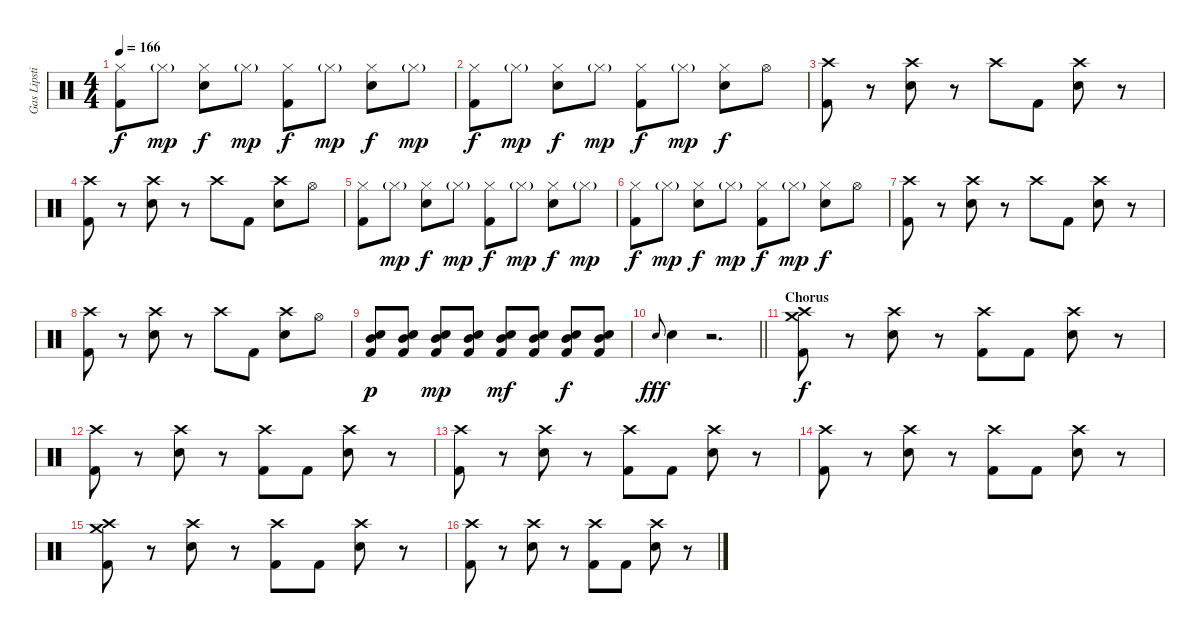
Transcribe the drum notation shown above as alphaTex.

\track ("Gas Lipstick (Drums)" "Gas Lipsti") {instrument percussion}
\staff {score}
\articulation defaults
\ts (4 4)
\tempo 166
\clef neutral
\ks c
("Hi-Hat (closed)" "Kick (hit) 2").8{dy f} "Hi-Hat (closed)"{g}.8{dy mp} ("Hi-Hat (closed)" "Snare (hit) 2").8{dy f} "Hi-Hat (closed)"{g}.8{dy mp} ("Hi-Hat (closed)" "Kick (hit) 2").8{dy f} "Hi-Hat (closed)"{g}.8{dy mp} ("Hi-Hat (closed)" "Snare (hit) 2").8{dy f} "Hi-Hat (closed)"{g}.8{dy mp} |
("Hi-Hat (closed)" "Kick (hit) 2").8{dy f} "Hi-Hat (closed)"{g}.8{dy mp} ("Hi-Hat (closed)" "Snare (hit) 2").8{dy f} "Hi-Hat (closed)"{g}.8{dy mp} ("Hi-Hat (closed)" "Kick (hit) 2").8{dy f} "Hi-Hat (closed)"{g}.8{dy mp} ("Hi-Hat (closed)" "Snare (hit) 2").8{dy f} "Hi-Hat (open)".8 |
("Crash high (hit)" "Kick (hit) 2").8 r.8 ("Crash high (hit)" "Snare (hit) 2").8 r.8 "Crash high (hit)".8 "Kick (hit) 2".8 ("Crash high (hit)" "Snare (hit) 2").8 r.8 |
("Crash high (hit)" "Kick (hit) 2").8 r.8 ("Crash high (hit)" "Snare (hit) 2").8 r.8 "Crash high (hit)".8 "Kick (hit) 2".8 ("Crash high (hit)" "Snare (hit) 2").8 "Hi-Hat (open)".8 |
("Hi-Hat (closed)" "Kick (hit) 2").8 "Hi-Hat (closed)"{g}.8{dy mp} ("Hi-Hat (closed)" "Snare (hit) 2").8{dy f} "Hi-Hat (closed)"{g}.8{dy mp} ("Hi-Hat (closed)" "Kick (hit) 2").8{dy f} "Hi-Hat (closed)"{g}.8{dy mp} ("Hi-Hat (closed)" "Snare (hit) 2").8{dy f} "Hi-Hat (closed)"{g}.8{dy mp} |
("Hi-Hat (closed)" "Kick (hit) 2").8{dy f} "Hi-Hat (closed)"{g}.8{dy mp} ("Hi-Hat (closed)" "Snare (hit) 2").8{dy f} "Hi-Hat (closed)"{g}.8{dy mp} ("Hi-Hat (closed)" "Kick (hit) 2").8{dy f} "Hi-Hat (closed)"{g}.8{dy mp} ("Hi-Hat (closed)" "Snare (hit) 2").8{dy f} "Hi-Hat (open)".8 |
("Crash high (hit)" "Kick (hit) 2").8 r.8 ("Crash high (hit)" "Snare (hit) 2").8 r.8 "Crash high (hit)".8 "Kick (hit) 2".8 ("Crash high (hit)" "Snare (hit) 2").8 r.8 |
("Crash high (hit)" "Kick (hit) 2").8 r.8 ("Crash high (hit)" "Snare (hit) 2").8 r.8 "Crash high (hit)".8 "Kick (hit) 2".8 ("Crash high (hit)" "Snare (hit) 2").8 "Hi-Hat (open)".8 |
("Mid Tom (hit)" "Snare (hit) 2" "Kick (hit) 2").8{dy p} ("Mid Tom (hit)" "Snare (hit) 2" "Kick (hit) 2").8 ("Mid Tom (hit)" "Snare (hit) 2" "Kick (hit) 2").8{dy mp} ("Mid Tom (hit)" "Snare (hit) 2" "Kick (hit) 2").8 ("Mid Tom (hit)" "Snare (hit) 2" "Kick (hit) 2").8{dy mf} ("Mid Tom (hit)" "Snare (hit) 2" "Kick (hit) 2").8 ("Mid Tom (hit)" "Snare (hit) 2" "Kick (hit) 2").8{dy f} ("Mid Tom (hit)" "Snare (hit) 2" "Kick (hit) 2").8 |
\barLineRight lightlight "Snare (hit) 2".8{gr onbeat dy fff} "Snare (hit) 2".4
r.2{d} |
\section ("" "Chorus")
("Crash medium (hit)" "Crash high (hit)" "Kick (hit) 2").8{dy f} r.8 ("Crash high (hit)" "Snare (hit) 2").8 r.8 ("Crash high (hit)" "Kick (hit) 2").8 "Kick (hit) 2".8 ("Crash high (hit)" "Snare (hit) 2").8 r.8 |
("Crash high (hit)" "Kick (hit) 2").8 r.8 ("Crash high (hit)" "Snare (hit) 2").8 r.8 ("Crash high (hit)" "Kick (hit) 2").8 "Kick (hit) 2".8 ("Crash high (hit)" "Snare (hit) 2").8 r.8 |
("Crash high (hit)" "Kick (hit) 2").8 r.8 ("Crash high (hit)" "Snare (hit) 2").8 r.8 ("Crash high (hit)" "Kick (hit) 2").8 "Kick (hit) 2".8 ("Crash high (hit)" "Snare (hit) 2").8 r.8 |
("Crash high (hit)" "Kick (hit) 2").8 r.8 ("Crash high (hit)" "Snare (hit) 2").8 r.8 ("Crash high (hit)" "Kick (hit) 2").8 "Kick (hit) 2".8 ("Crash high (hit)" "Snare (hit) 2").8 r.8 |
("Crash medium (hit)" "Crash high (hit)" "Kick (hit) 2").8 r.8 ("Crash high (hit)" "Snare (hit) 2").8 r.8 ("Crash high (hit)" "Kick (hit) 2").8 "Kick (hit) 2".8 ("Crash high (hit)" "Snare (hit) 2").8 r.8 |
("Crash high (hit)" "Kick (hit) 2").8 r.8 ("Crash high (hit)" "Snare (hit) 2").8 r.8 ("Crash high (hit)" "Kick (hit) 2").8 "Kick (hit) 2".8 ("Crash high (hit)" "Snare (hit) 2").8 r.8
